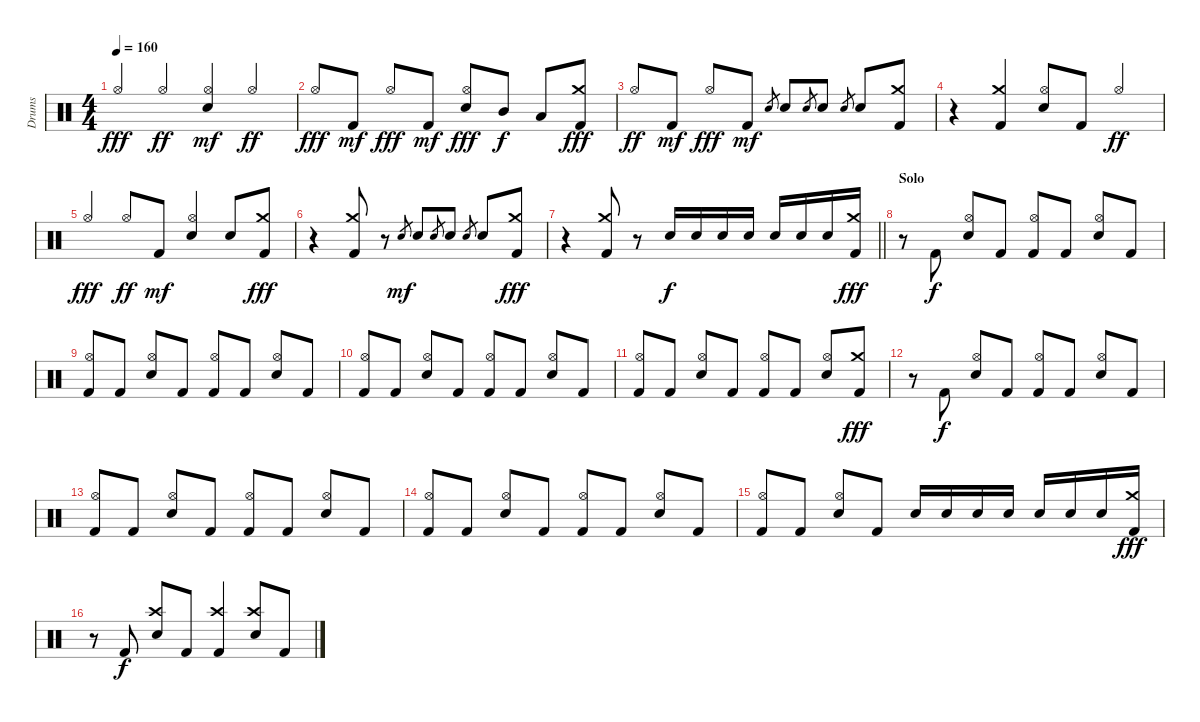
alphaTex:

\track ("Drums" "Drums") {solo instrument percussion}
\staff {score}
\articulation defaults
\ts (4 4)
\tempo 160
\clef neutral
\ks c "Hi-Hat (open)".4{dy fff beam Up} "Hi-Hat (open)".4{dy ff beam Up}
("Hi-Hat (open)" "Snare (hit) 2").4{dy mf beam Up} "Hi-Hat (open)".4{dy ff beam Up} |
"Hi-Hat (open)".8{dy fff beam Up} "Kick (hit) 2".8{dy mf beam Up} "Hi-Hat (open)".8{dy fff beam Up} "Kick (hit) 2".8{dy mf beam Up} ("Hi-Hat (open)" "Snare (hit) 2").8{dy fff beam Up} "Mid Tom (hit)".8{dy f beam Up} "Low Tom (hit)".8{beam Up} ("Crash medium (hit)" "Kick (hit) 2").8{dy fff beam Up} |
"Hi-Hat (open)".8{dy ff beam Up} "Kick (hit) 2".8{dy mf beam Up} "Hi-Hat (open)".8{dy fff beam Up} "Kick (hit) 2".8{dy mf beam Up} "Snare (hit) 2".8{gr} "Snare (hit) 2".8{beam Up} "Snare (hit) 2".8{gr} "Snare (hit) 2".8{beam Up} "Snare (hit) 2".8{gr} "Snare (hit) 2".8{beam Up} ("Crash medium (hit)" "Kick (hit) 2").8{beam Up} |
r.4 ("Crash medium (hit)" "Kick (hit) 2").4{beam Up} ("Hi-Hat (open)" "Snare (hit) 2").8{beam Up} "Kick (hit) 2".8{beam Up} "Hi-Hat (open)".4{dy ff beam Up} |
"Hi-Hat (open)".4{dy fff beam Up} "Hi-Hat (open)".8{dy ff beam Up} "Kick (hit) 2".8{dy mf beam Up} ("Hi-Hat (open)" "Snare (hit) 2").4{beam Up} "Snare (hit) 2".8{beam Up} ("Crash medium (hit)" "Kick (hit) 2").8{dy fff beam Up} |
r.4 ("Crash medium (hit)" "Kick (hit) 2").8{beam Up} r.8 "Snare (hit) 2".8{gr dy mf} "Snare (hit) 2".8{beam Up} "Snare (hit) 2".8{gr} "Snare (hit) 2".8{beam Up} "Snare (hit) 2".8{gr} "Snare (hit) 2".8{beam Up} ("Crash medium (hit)" "Kick (hit) 2").8{dy fff beam Up} |
\barLineRight lightlight
r.4 ("Crash medium (hit)" "Kick (hit) 2").8{beam Up} r.8 "Snare (hit) 2".16{dy f beam Up} "Snare (hit) 2".16{beam Up} "Snare (hit) 2".16{beam Up} "Snare (hit) 2".16{beam Up} "Snare (hit) 2".16{beam Up} "Snare (hit) 2".16{beam Up} "Snare (hit) 2".16{beam Up} ("Crash medium (hit)" "Kick (hit) 2").16{dy fff beam Up} |
\section ("" "Solo")
r.8 "Kick (hit) 2".8{dy f beam Down} ("Hi-Hat (open)" "Snare (hit) 2").8{beam Up} "Kick (hit) 2".8{beam Up} ("Hi-Hat (open)" "Kick (hit) 2").8{beam Up} "Kick (hit) 2".8{beam Up} ("Hi-Hat (open)" "Snare (hit) 2").8{beam Up} "Kick (hit) 2".8{beam Up} |
("Hi-Hat (open)" "Kick (hit) 2").8{beam Up} "Kick (hit) 2".8{beam Up} ("Hi-Hat (open)" "Snare (hit) 2").8{beam Up} "Kick (hit) 2".8{beam Up} ("Hi-Hat (open)" "Kick (hit) 2").8{beam Up} "Kick (hit) 2".8{beam Up} ("Hi-Hat (open)" "Snare (hit) 2").8{beam Up} "Kick (hit) 2".8{beam Up} |
("Hi-Hat (open)" "Kick (hit) 2").8{beam Up} "Kick (hit) 2".8{beam Up} ("Hi-Hat (open)" "Snare (hit) 2").8{beam Up} "Kick (hit) 2".8{beam Up} ("Hi-Hat (open)" "Kick (hit) 2").8{beam Up} "Kick (hit) 2".8{beam Up} ("Hi-Hat (open)" "Snare (hit) 2").8{beam Up} "Kick (hit) 2".8{beam Up} |
("Hi-Hat (open)" "Kick (hit) 2").8{beam Up} "Kick (hit) 2".8{beam Up} ("Hi-Hat (open)" "Snare (hit) 2").8{beam Up} "Kick (hit) 2".8{beam Up} ("Hi-Hat (open)" "Kick (hit) 2").8{beam Up} "Kick (hit) 2".8{beam Up} ("Hi-Hat (open)" "Snare (hit) 2").8{beam Up} ("Crash medium (hit)" "Kick (hit) 2").8{dy fff beam Up} |
r.8 "Kick (hit) 2".8{dy f beam Down} ("Hi-Hat (open)" "Snare (hit) 2").8{beam Up} "Kick (hit) 2".8{beam Up} ("Hi-Hat (open)" "Kick (hit) 2").8{beam Up} "Kick (hit) 2".8{beam Up} ("Hi-Hat (open)" "Snare (hit) 2").8{beam Up} "Kick (hit) 2".8{beam Up} |
("Hi-Hat (open)" "Kick (hit) 2").8{beam Up} "Kick (hit) 2".8{beam Up} ("Hi-Hat (open)" "Snare (hit) 2").8{beam Up} "Kick (hit) 2".8{beam Up} ("Hi-Hat (open)" "Kick (hit) 2").8{beam Up} "Kick (hit) 2".8{beam Up} ("Hi-Hat (open)" "Snare (hit) 2").8{beam Up} "Kick (hit) 2".8{beam Up} |
("Hi-Hat (open)" "Kick (hit) 2").8{beam Up} "Kick (hit) 2".8{beam Up} ("Hi-Hat (open)" "Snare (hit) 2").8{beam Up} "Kick (hit) 2".8{beam Up} ("Hi-Hat (open)" "Kick (hit) 2").8{beam Up} "Kick (hit) 2".8{beam Up} ("Hi-Hat (open)" "Snare (hit) 2").8{beam Up} "Kick (hit) 2".8{beam Up} |
("Hi-Hat (open)" "Kick (hit) 2").8{beam Up} "Kick (hit) 2".8{beam Up} ("Hi-Hat (open)" "Snare (hit) 2").8{beam Up} "Kick (hit) 2".8{beam Up} "Snare (hit) 2".16{beam Up} "Snare (hit) 2".16{beam Up} "Snare (hit) 2".16{beam Up} "Snare (hit) 2".16{beam Up} "Snare (hit) 2".16{beam Up} "Snare (hit) 2".16{beam Up} "Snare (hit) 2".16{beam Up} ("Crash medium (hit)" "Kick (hit) 2").16{dy fff beam Up} |
r.8{beam Up} "Kick (hit) 2".8{dy f beam Down} ("Crash high (hit)" "Snare (hit) 2").8{beam Up} "Kick (hit) 2".8{beam Up} ("Crash high (hit)" "Kick (hit) 2").4{beam Up} ("Crash high (hit)" "Snare (hit) 2").8{beam Up} "Kick (hit) 2".8{beam Up}
